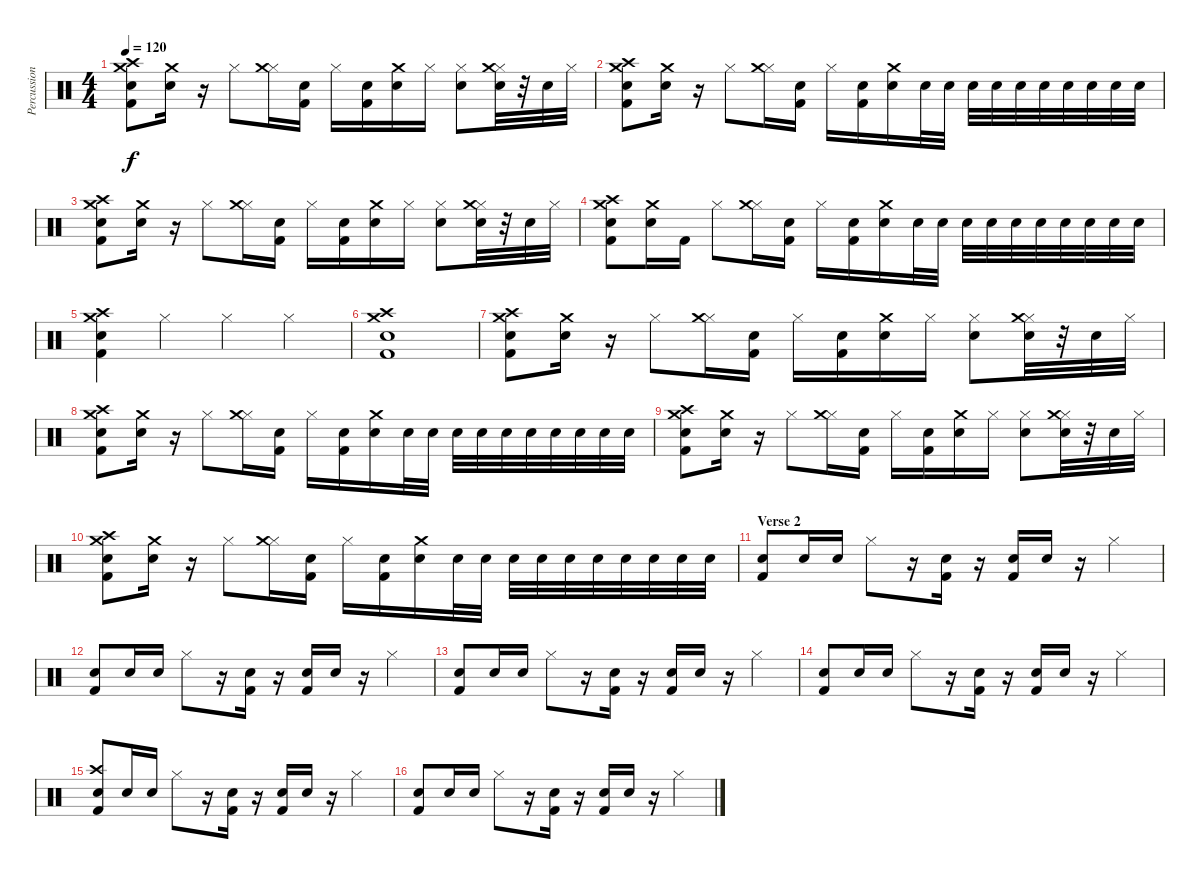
\track ("Percussion" "Percussion") {instrument percussion}
\staff {score}
\articulation defaults
\ts (4 4)
\tempo 120
\clef neutral
\ks c
("Kick (hit) 2" "Snare (hit) 2" "Crash high (hit)" "Crash medium (hit)").8{dy f} ("Snare (hit) 2" "Crash medium (hit)").16 r.16 "Hi-Hat (closed)".8 ("Hi-Hat (closed)" "Crash medium (hit)").16 ("Kick (hit) 2" "Snare (hit) 2").16 "Hi-Hat (closed)".16 ("Kick (hit) 2" "Snare (hit) 2").16 ("Snare (hit) 2" "Crash medium (hit)").16 "Hi-Hat (closed)".16 ("Hi-Hat (closed)" "Snare (hit) 2").8 ("Snare (hit) 2" "Hi-Hat (closed)" "Crash medium (hit)").32 r.32 "Snare (hit) 2".32 "Hi-Hat (closed)".32 |
("Kick (hit) 2" "Snare (hit) 2" "Crash high (hit)" "Crash medium (hit)").8 ("Snare (hit) 2" "Crash medium (hit)").16 r.16 "Hi-Hat (closed)".8 ("Hi-Hat (closed)" "Crash medium (hit)").16 ("Kick (hit) 2" "Snare (hit) 2").16 "Hi-Hat (closed)".16 ("Kick (hit) 2" "Snare (hit) 2").16 ("Snare (hit) 2" "Crash medium (hit)").16 "Snare (hit) 2".32 "Snare (hit) 2".32 "Snare (hit) 2".32 "Snare (hit) 2".32 "Snare (hit) 2".32 "Snare (hit) 2".32 "Snare (hit) 2".32 "Snare (hit) 2".32 "Snare (hit) 2".32 "Snare (hit) 2".32 |
("Kick (hit) 2" "Snare (hit) 2" "Crash high (hit)" "Crash medium (hit)").8 ("Snare (hit) 2" "Crash medium (hit)").16 r.16 "Hi-Hat (closed)".8 ("Hi-Hat (closed)" "Crash medium (hit)").16 ("Kick (hit) 2" "Snare (hit) 2").16 "Hi-Hat (closed)".16 ("Kick (hit) 2" "Snare (hit) 2").16 ("Snare (hit) 2" "Crash medium (hit)").16 "Hi-Hat (closed)".16 ("Hi-Hat (closed)" "Snare (hit) 2").8 ("Snare (hit) 2" "Hi-Hat (closed)" "Crash medium (hit)").32 r.32 "Snare (hit) 2".32 "Hi-Hat (closed)".32 |
("Kick (hit) 2" "Snare (hit) 2" "Crash high (hit)" "Crash medium (hit)").8 ("Snare (hit) 2" "Crash medium (hit)").16 "Kick (hit) 2".16 "Hi-Hat (closed)".8 ("Hi-Hat (closed)" "Crash medium (hit)").16 ("Kick (hit) 2" "Snare (hit) 2").16 "Hi-Hat (closed)".16 ("Kick (hit) 2" "Snare (hit) 2").16 ("Snare (hit) 2" "Crash medium (hit)").16 "Snare (hit) 2".32 "Snare (hit) 2".32 "Snare (hit) 2".32 "Snare (hit) 2".32 "Snare (hit) 2".32 "Snare (hit) 2".32 "Snare (hit) 2".32 "Snare (hit) 2".32 "Snare (hit) 2".32 "Snare (hit) 2".32 |
("Kick (hit) 2" "Snare (hit) 2" "Crash high (hit)" "Crash medium (hit)").4 "Hi-Hat (closed)".4 "Hi-Hat (closed)".4 "Hi-Hat (closed)".4 |
("Kick (hit) 2" "Snare (hit) 2" "Crash high (hit)" "Crash medium (hit)").1 |
("Kick (hit) 2" "Snare (hit) 2" "Crash high (hit)" "Crash medium (hit)").8 ("Snare (hit) 2" "Crash medium (hit)").16 r.16 "Hi-Hat (closed)".8 ("Hi-Hat (closed)" "Crash medium (hit)").16 ("Kick (hit) 2" "Snare (hit) 2").16 "Hi-Hat (closed)".16 ("Kick (hit) 2" "Snare (hit) 2").16 ("Snare (hit) 2" "Crash medium (hit)").16 "Hi-Hat (closed)".16 ("Hi-Hat (closed)" "Snare (hit) 2").8 ("Snare (hit) 2" "Hi-Hat (closed)" "Crash medium (hit)").32 r.32 "Snare (hit) 2".32 "Hi-Hat (closed)".32 |
("Kick (hit) 2" "Snare (hit) 2" "Crash high (hit)" "Crash medium (hit)").8 ("Snare (hit) 2" "Crash medium (hit)").16 r.16 "Hi-Hat (closed)".8 ("Hi-Hat (closed)" "Crash medium (hit)").16 ("Kick (hit) 2" "Snare (hit) 2").16 "Hi-Hat (closed)".16 ("Kick (hit) 2" "Snare (hit) 2").16 ("Snare (hit) 2" "Crash medium (hit)").16 "Snare (hit) 2".32 "Snare (hit) 2".32 "Snare (hit) 2".32 "Snare (hit) 2".32 "Snare (hit) 2".32 "Snare (hit) 2".32 "Snare (hit) 2".32 "Snare (hit) 2".32 "Snare (hit) 2".32 "Snare (hit) 2".32 |
("Kick (hit) 2" "Snare (hit) 2" "Crash high (hit)" "Crash medium (hit)").8 ("Snare (hit) 2" "Crash medium (hit)").16 r.16 "Hi-Hat (closed)".8 ("Hi-Hat (closed)" "Crash medium (hit)").16 ("Kick (hit) 2" "Snare (hit) 2").16 "Hi-Hat (closed)".16 ("Kick (hit) 2" "Snare (hit) 2").16 ("Snare (hit) 2" "Crash medium (hit)").16 "Hi-Hat (closed)".16 ("Hi-Hat (closed)" "Snare (hit) 2").8 ("Snare (hit) 2" "Hi-Hat (closed)" "Crash medium (hit)").32 r.32 "Snare (hit) 2".32 "Hi-Hat (closed)".32 |
("Kick (hit) 2" "Snare (hit) 2" "Crash high (hit)" "Crash medium (hit)").8 ("Snare (hit) 2" "Crash medium (hit)").16 r.16 "Hi-Hat (closed)".8 ("Hi-Hat (closed)" "Crash medium (hit)").16 ("Kick (hit) 2" "Snare (hit) 2").16 "Hi-Hat (closed)".16 ("Kick (hit) 2" "Snare (hit) 2").16 ("Snare (hit) 2" "Crash medium (hit)").16 "Snare (hit) 2".32 "Snare (hit) 2".32 "Snare (hit) 2".32 "Snare (hit) 2".32 "Snare (hit) 2".32 "Snare (hit) 2".32 "Snare (hit) 2".32 "Snare (hit) 2".32 "Snare (hit) 2".32 "Snare (hit) 2".32 |
\section ("" "Verse 2")
("Kick (hit) 2" "Electric Snare (hit)").8 "Electric Snare (hit)".16 "Electric Snare (hit)".16 "Hi-Hat (closed)".8 r.16 ("Kick (hit) 2" "Electric Snare (hit)").16 r.16 ("Kick (hit) 2" "Electric Snare (hit)").16 "Electric Snare (hit)".16 r.16 "Hi-Hat (closed)".4 |
("Kick (hit) 2" "Electric Snare (hit)").8 "Electric Snare (hit)".16 "Electric Snare (hit)".16 "Hi-Hat (closed)".8 r.16 ("Kick (hit) 2" "Electric Snare (hit)").16 r.16 ("Kick (hit) 2" "Electric Snare (hit)").16 "Electric Snare (hit)".16 r.16 "Hi-Hat (closed)".4 |
("Kick (hit) 2" "Electric Snare (hit)").8 "Electric Snare (hit)".16 "Electric Snare (hit)".16 "Hi-Hat (closed)".8 r.16 ("Kick (hit) 2" "Electric Snare (hit)").16 r.16 ("Kick (hit) 2" "Electric Snare (hit)").16 "Electric Snare (hit)".16 r.16 "Hi-Hat (closed)".4 |
("Kick (hit) 2" "Electric Snare (hit)").8 "Electric Snare (hit)".16 "Electric Snare (hit)".16 "Hi-Hat (closed)".8 r.16 ("Kick (hit) 2" "Electric Snare (hit)").16 r.16 ("Kick (hit) 2" "Electric Snare (hit)").16 "Electric Snare (hit)".16 r.16 "Hi-Hat (closed)".4 |
("Kick (hit) 2" "Electric Snare (hit)" "Crash high (hit)").8 "Electric Snare (hit)".16 "Electric Snare (hit)".16 "Hi-Hat (closed)".8 r.16 ("Kick (hit) 2" "Electric Snare (hit)").16 r.16 ("Kick (hit) 2" "Electric Snare (hit)").16 "Electric Snare (hit)".16 r.16 "Hi-Hat (closed)".4 |
("Kick (hit) 2" "Electric Snare (hit)").8 "Electric Snare (hit)".16 "Electric Snare (hit)".16 "Hi-Hat (closed)".8 r.16 ("Kick (hit) 2" "Electric Snare (hit)").16 r.16 ("Kick (hit) 2" "Electric Snare (hit)").16 "Electric Snare (hit)".16 r.16 "Hi-Hat (closed)".4
